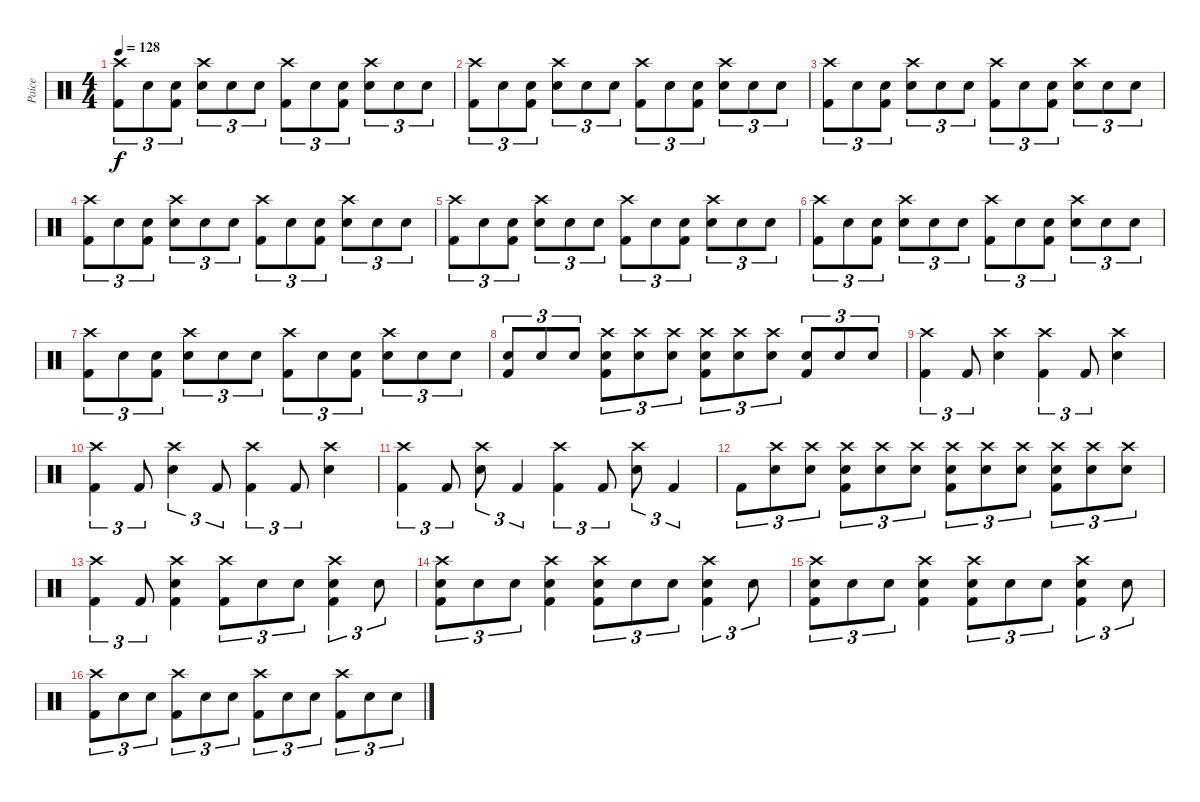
\track ("Paice" "Paice") {instrument percussion}
\staff {score}
\articulation defaults
\ts (4 4)
\tempo 128
\clef neutral
\ks c
("Crash high (hit)" "Kick (hit) 2").8{tu (3 2) dy f} "Snare (hit) 2".8{tu (3 2)} ("Snare (hit) 2" "Kick (hit) 2").8{tu (3 2)} ("Crash high (hit)" "Snare (hit) 2").8{tu (3 2)} "Snare (hit) 2".8{tu (3 2)} "Snare (hit) 2".8{tu (3 2)} ("Crash high (hit)" "Kick (hit) 2").8{tu (3 2)} "Snare (hit) 2".8{tu (3 2)} ("Snare (hit) 2" "Kick (hit) 2").8{tu (3 2)} ("Crash high (hit)" "Snare (hit) 2").8{tu (3 2)} "Snare (hit) 2".8{tu (3 2)} "Snare (hit) 2".8{tu (3 2)} |
("Crash high (hit)" "Kick (hit) 2").8{tu (3 2)} "Snare (hit) 2".8{tu (3 2)} ("Snare (hit) 2" "Kick (hit) 2").8{tu (3 2)} ("Crash high (hit)" "Snare (hit) 2").8{tu (3 2)} "Snare (hit) 2".8{tu (3 2)} "Snare (hit) 2".8{tu (3 2)} ("Crash high (hit)" "Kick (hit) 2").8{tu (3 2)} "Snare (hit) 2".8{tu (3 2)} ("Snare (hit) 2" "Kick (hit) 2").8{tu (3 2)} ("Crash high (hit)" "Snare (hit) 2").8{tu (3 2)} "Snare (hit) 2".8{tu (3 2)} "Snare (hit) 2".8{tu (3 2)} |
("Crash high (hit)" "Kick (hit) 2").8{tu (3 2)} "Snare (hit) 2".8{tu (3 2)} ("Snare (hit) 2" "Kick (hit) 2").8{tu (3 2)} ("Crash high (hit)" "Snare (hit) 2").8{tu (3 2)} "Snare (hit) 2".8{tu (3 2)} "Snare (hit) 2".8{tu (3 2)} ("Crash high (hit)" "Kick (hit) 2").8{tu (3 2)} "Snare (hit) 2".8{tu (3 2)} ("Snare (hit) 2" "Kick (hit) 2").8{tu (3 2)} ("Crash high (hit)" "Snare (hit) 2").8{tu (3 2)} "Snare (hit) 2".8{tu (3 2)} "Snare (hit) 2".8{tu (3 2)} |
("Crash high (hit)" "Kick (hit) 2").8{tu (3 2)} "Snare (hit) 2".8{tu (3 2)} ("Snare (hit) 2" "Kick (hit) 2").8{tu (3 2)} ("Crash high (hit)" "Snare (hit) 2").8{tu (3 2)} "Snare (hit) 2".8{tu (3 2)} "Snare (hit) 2".8{tu (3 2)} ("Crash high (hit)" "Kick (hit) 2").8{tu (3 2)} "Snare (hit) 2".8{tu (3 2)} ("Snare (hit) 2" "Kick (hit) 2").8{tu (3 2)} ("Crash high (hit)" "Snare (hit) 2").8{tu (3 2)} "Snare (hit) 2".8{tu (3 2)} "Snare (hit) 2".8{tu (3 2)} |
("Crash high (hit)" "Kick (hit) 2").8{tu (3 2)} "Snare (hit) 2".8{tu (3 2)} ("Snare (hit) 2" "Kick (hit) 2").8{tu (3 2)} ("Crash high (hit)" "Snare (hit) 2").8{tu (3 2)} "Snare (hit) 2".8{tu (3 2)} "Snare (hit) 2".8{tu (3 2)} ("Crash high (hit)" "Kick (hit) 2").8{tu (3 2)} "Snare (hit) 2".8{tu (3 2)} ("Snare (hit) 2" "Kick (hit) 2").8{tu (3 2)} ("Crash high (hit)" "Snare (hit) 2").8{tu (3 2)} "Snare (hit) 2".8{tu (3 2)} "Snare (hit) 2".8{tu (3 2)} |
("Crash high (hit)" "Kick (hit) 2").8{tu (3 2)} "Snare (hit) 2".8{tu (3 2)} ("Snare (hit) 2" "Kick (hit) 2").8{tu (3 2)} ("Crash high (hit)" "Snare (hit) 2").8{tu (3 2)} "Snare (hit) 2".8{tu (3 2)} "Snare (hit) 2".8{tu (3 2)} ("Crash high (hit)" "Kick (hit) 2").8{tu (3 2)} "Snare (hit) 2".8{tu (3 2)} ("Snare (hit) 2" "Kick (hit) 2").8{tu (3 2)} ("Crash high (hit)" "Snare (hit) 2").8{tu (3 2)} "Snare (hit) 2".8{tu (3 2)} "Snare (hit) 2".8{tu (3 2)} |
("Crash high (hit)" "Kick (hit) 2").8{tu (3 2)} "Snare (hit) 2".8{tu (3 2)} ("Snare (hit) 2" "Kick (hit) 2").8{tu (3 2)} ("Crash high (hit)" "Snare (hit) 2").8{tu (3 2)} "Snare (hit) 2".8{tu (3 2)} "Snare (hit) 2".8{tu (3 2)} ("Crash high (hit)" "Kick (hit) 2").8{tu (3 2)} "Snare (hit) 2".8{tu (3 2)} ("Snare (hit) 2" "Kick (hit) 2").8{tu (3 2)} ("Crash high (hit)" "Snare (hit) 2").8{tu (3 2)} "Snare (hit) 2".8{tu (3 2)} "Snare (hit) 2".8{tu (3 2)} |
("Snare (hit) 2" "Kick (hit) 2").8{tu (3 2)} "Snare (hit) 2".8{tu (3 2)} "Snare (hit) 2".8{tu (3 2)} ("Crash high (hit)" "Snare (hit) 2" "Kick (hit) 2").8{tu (3 2)} ("Crash high (hit)" "Snare (hit) 2").8{tu (3 2)} ("Crash high (hit)" "Snare (hit) 2").8{tu (3 2)} ("Crash high (hit)" "Snare (hit) 2" "Kick (hit) 2").8{tu (3 2)} ("Crash high (hit)" "Snare (hit) 2").8{tu (3 2)} ("Crash high (hit)" "Snare (hit) 2").8{tu (3 2)} ("Snare (hit) 2" "Kick (hit) 2").8{tu (3 2)} "Snare (hit) 2".8{tu (3 2)} "Snare (hit) 2".8{tu (3 2)} |
("Crash high (hit)" "Kick (hit) 2").4{tu (3 2)} "Kick (hit) 2".8{tu (3 2)} ("Crash high (hit)" "Snare (hit) 2").4 ("Crash high (hit)" "Kick (hit) 2").4{tu (3 2)} "Kick (hit) 2".8{tu (3 2)} ("Crash high (hit)" "Snare (hit) 2").4 |
("Crash high (hit)" "Kick (hit) 2").4{tu (3 2)} "Kick (hit) 2".8{tu (3 2)} ("Crash high (hit)" "Snare (hit) 2").4{tu (3 2)} "Kick (hit) 2".8{tu (3 2)} ("Crash high (hit)" "Kick (hit) 2").4{tu (3 2)} "Kick (hit) 2".8{tu (3 2)} ("Crash high (hit)" "Snare (hit) 2").4 |
("Crash high (hit)" "Kick (hit) 2").4{tu (3 2)} "Kick (hit) 2".8{tu (3 2)} ("Crash high (hit)" "Snare (hit) 2").8{tu (3 2)} "Kick (hit) 2".4{tu (3 2)} ("Crash high (hit)" "Kick (hit) 2").4{tu (3 2)} "Kick (hit) 2".8{tu (3 2)} ("Crash high (hit)" "Snare (hit) 2").8{tu (3 2)} "Kick (hit) 2".4{tu (3 2)} |
"Kick (hit) 2".8{tu (3 2)} ("Crash high (hit)" "Snare (hit) 2").8{tu (3 2)} ("Crash high (hit)" "Snare (hit) 2").8{tu (3 2)} ("Crash high (hit)" "Snare (hit) 2" "Kick (hit) 2").8{tu (3 2)} ("Crash high (hit)" "Snare (hit) 2").8{tu (3 2)} ("Crash high (hit)" "Snare (hit) 2").8{tu (3 2)} ("Crash high (hit)" "Snare (hit) 2" "Kick (hit) 2").8{tu (3 2)} ("Crash high (hit)" "Snare (hit) 2").8{tu (3 2)} ("Crash high (hit)" "Snare (hit) 2").8{tu (3 2)} ("Crash high (hit)" "Snare (hit) 2" "Kick (hit) 2").8{tu (3 2)} ("Crash high (hit)" "Snare (hit) 2").8{tu (3 2)} ("Crash high (hit)" "Snare (hit) 2").8{tu (3 2)} |
("Crash high (hit)" "Kick (hit) 2").4{tu (3 2)} "Kick (hit) 2".8{tu (3 2)} ("Crash high (hit)" "Snare (hit) 2" "Kick (hit) 2").4 ("Crash high (hit)" "Kick (hit) 2").8{tu (3 2)} "Snare (hit) 2".8{tu (3 2)} "Snare (hit) 2".8{tu (3 2)} ("Crash high (hit)" "Snare (hit) 2" "Kick (hit) 2").4{tu (3 2)} "Snare (hit) 2".8{tu (3 2)} |
("Crash high (hit)" "Snare (hit) 2" "Kick (hit) 2").8{tu (3 2)} "Snare (hit) 2".8{tu (3 2)} "Snare (hit) 2".8{tu (3 2)} ("Crash high (hit)" "Snare (hit) 2" "Kick (hit) 2").4 ("Crash high (hit)" "Snare (hit) 2" "Kick (hit) 2").8{tu (3 2)} "Snare (hit) 2".8{tu (3 2)} "Snare (hit) 2".8{tu (3 2)} ("Crash high (hit)" "Snare (hit) 2" "Kick (hit) 2").4{tu (3 2)} "Snare (hit) 2".8{tu (3 2)} |
("Crash high (hit)" "Snare (hit) 2" "Kick (hit) 2").8{tu (3 2)} "Snare (hit) 2".8{tu (3 2)} "Snare (hit) 2".8{tu (3 2)} ("Crash high (hit)" "Snare (hit) 2" "Kick (hit) 2").4 ("Crash high (hit)" "Snare (hit) 2" "Kick (hit) 2").8{tu (3 2)} "Snare (hit) 2".8{tu (3 2)} "Snare (hit) 2".8{tu (3 2)} ("Crash high (hit)" "Snare (hit) 2" "Kick (hit) 2").4{tu (3 2)} "Snare (hit) 2".8{tu (3 2)} |
("Crash high (hit)" "Kick (hit) 2").8{tu (3 2) volume 0} "Snare (hit) 2".8{tu (3 2)} "Snare (hit) 2".8{tu (3 2)} ("Crash high (hit)" "Kick (hit) 2").8{tu (3 2)} "Snare (hit) 2".8{tu (3 2)} "Snare (hit) 2".8{tu (3 2)} ("Crash high (hit)" "Kick (hit) 2").8{tu (3 2)} "Snare (hit) 2".8{tu (3 2)} "Snare (hit) 2".8{tu (3 2)} ("Crash high (hit)" "Kick (hit) 2").8{tu (3 2)} "Snare (hit) 2".8{tu (3 2)} "Snare (hit) 2".8{tu (3 2)}
